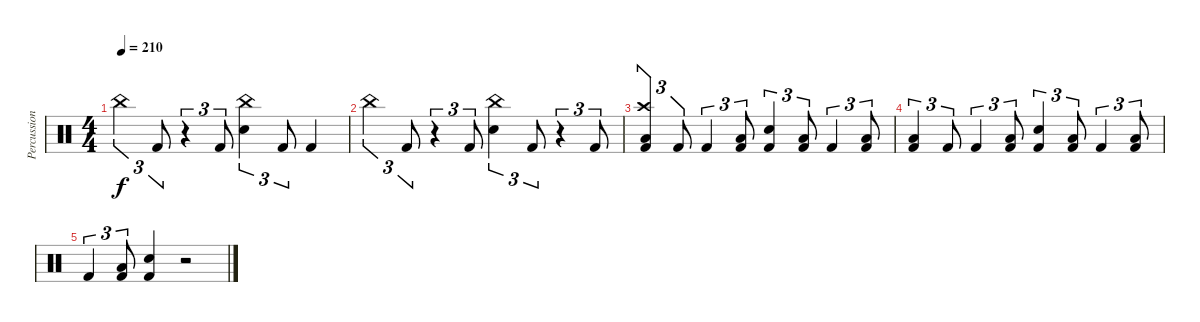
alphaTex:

\track ("Percussion" "Percussion") {instrument percussion}
\staff {score}
\articulation defaults
\ts (4 4)
\tempo 210
\clef neutral
\ks c "China (hit)".4{tu (3 2) dy f} "Kick (hit) 2".8{tu (3 2)}
r.4{tu (3 2)} "Kick (hit) 2".8{tu (3 2)} ("China (hit)" "Electric Snare (hit)").4{tu (3 2)} "Kick (hit) 2".8{tu (3 2)} "Kick (hit) 2".4 |
"China (hit)".4{tu (3 2)} "Kick (hit) 2".8{tu (3 2)} r.4{tu (3 2)} "Kick (hit) 2".8{tu (3 2)} ("China (hit)" "Electric Snare (hit)").4{tu (3 2)} "Kick (hit) 2".8{tu (3 2)} r.4{tu (3 2)} "Kick (hit) 2".8{tu (3 2)} |
("Crash high (hit)" "Low Floor Tom (hit)" "Kick (hit) 2").4{tu (3 2)} "Kick (hit) 2".8{tu (3 2)} "Kick (hit) 2".4{tu (3 2)} ("Low Floor Tom (hit)" "Kick (hit) 2").8{tu (3 2)} ("Electric Snare (hit)" "Kick (hit) 2").4{tu (3 2)} ("Low Floor Tom (hit)" "Kick (hit) 2").8{tu (3 2)} "Kick (hit) 2".4{tu (3 2)} ("Low Floor Tom (hit)" "Kick (hit) 2").8{tu (3 2)} |
("Low Floor Tom (hit)" "Kick (hit) 2").4{tu (3 2)} "Kick (hit) 2".8{tu (3 2)} "Kick (hit) 2".4{tu (3 2)} ("Low Floor Tom (hit)" "Kick (hit) 2").8{tu (3 2)} ("Electric Snare (hit)" "Kick (hit) 2").4{tu (3 2)} ("Low Floor Tom (hit)" "Kick (hit) 2").8{tu (3 2)} "Kick (hit) 2".4{tu (3 2)} ("Low Floor Tom (hit)" "Kick (hit) 2").8{tu (3 2)} |
"Kick (hit) 2".4{tu (3 2)} ("Low Floor Tom (hit)" "Kick (hit) 2").8{tu (3 2)} ("Electric Snare (hit)" "Kick (hit) 2").4 r.2
